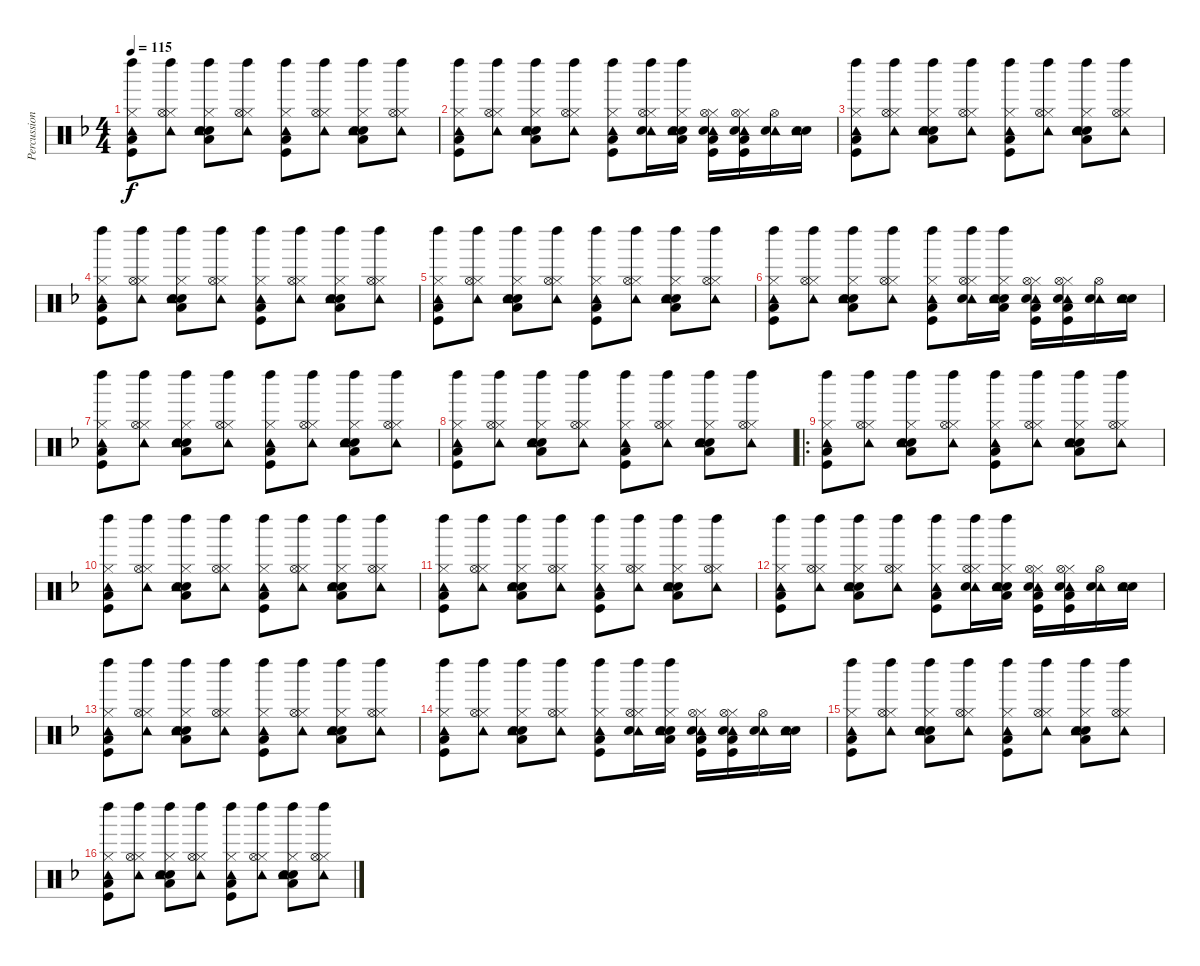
\track ("Percussion" "Percussion") {instrument percussion}
\staff {score}
\articulation defaults
\ts (4 4)
\tempo 115
\clef neutral
\ks dminor
("Left Maraca (hit)" "Hi-Hat (closed)" "Tambourine (hit)" "Kick (hit)" "Low Floor Tom (hit)").8{dy f} ("Left Maraca (hit)" "Hi-Hat (closed)" "Hi-Hat (open)" "Tambourine (hit)").8 ("Left Maraca (hit)" "Hi-Hat (closed)" "Electric Snare (hit)" "Tambourine (hit)" "Snare (hit) 2" "Low Tom (hit)").8 ("Left Maraca (hit)" "Hi-Hat (closed)" "Hi-Hat (open)" "Tambourine (hit)").8 ("Left Maraca (hit)" "Hi-Hat (closed)" "Tambourine (hit)" "Kick (hit)" "Low Floor Tom (hit)").8 ("Left Maraca (hit)" "Hi-Hat (closed)" "Hi-Hat (open)" "Tambourine (hit)").8 ("Left Maraca (hit)" "Hi-Hat (closed)" "Electric Snare (hit)" "Tambourine (hit)" "Snare (hit) 2" "Low Tom (hit)").8 ("Left Maraca (hit)" "Hi-Hat (closed)" "Hi-Hat (open)" "Tambourine (hit)").8 |
("Left Maraca (hit)" "Hi-Hat (closed)" "Tambourine (hit)" "Kick (hit)" "Low Floor Tom (hit)").8 ("Left Maraca (hit)" "Hi-Hat (closed)" "Hi-Hat (open)" "Tambourine (hit)").8 ("Left Maraca (hit)" "Hi-Hat (closed)" "Electric Snare (hit)" "Tambourine (hit)" "Snare (hit) 2" "Low Tom (hit)").8 ("Left Maraca (hit)" "Hi-Hat (closed)" "Hi-Hat (open)" "Tambourine (hit)").8 ("Left Maraca (hit)" "Hi-Hat (closed)" "Tambourine (hit)" "Kick (hit)" "Low Floor Tom (hit)").8 ("Left Maraca (hit)" "Hi-Hat (closed)" "Hi-Hat (open)" "Tambourine (hit)" "Snare (hit) 2").16 ("Left Maraca (hit)" "Hi-Hat (closed)" "Electric Snare (hit)" "Tambourine (hit)" "Snare (hit) 2" "Low Tom (hit)").16 ("Kick (hit)" "Hi-Hat (closed)" "Hi-Hat (open)" "Tambourine (hit)" "Electric Snare (hit)" "Low Floor Tom (hit)").16 ("Kick (hit)" "Hi-Hat (closed)" "Hi-Hat (open)" "Tambourine (hit)" "Electric Snare (hit)" "Low Floor Tom (hit)").16 ("Hi-Hat (open)" "Tambourine (hit)" "Snare (hit) 2").16 ("Electric Snare (hit)" "Tambourine (hit)" "Snare (hit) 2").16 |
("Left Maraca (hit)" "Hi-Hat (closed)" "Tambourine (hit)" "Kick (hit)" "Low Floor Tom (hit)").8 ("Left Maraca (hit)" "Hi-Hat (closed)" "Hi-Hat (open)" "Tambourine (hit)").8 ("Left Maraca (hit)" "Hi-Hat (closed)" "Electric Snare (hit)" "Tambourine (hit)" "Snare (hit) 2" "Low Tom (hit)").8 ("Left Maraca (hit)" "Hi-Hat (closed)" "Hi-Hat (open)" "Tambourine (hit)").8 ("Left Maraca (hit)" "Hi-Hat (closed)" "Tambourine (hit)" "Kick (hit)" "Low Floor Tom (hit)").8 ("Left Maraca (hit)" "Hi-Hat (closed)" "Hi-Hat (open)" "Tambourine (hit)").8 ("Left Maraca (hit)" "Hi-Hat (closed)" "Electric Snare (hit)" "Tambourine (hit)" "Snare (hit) 2" "Low Tom (hit)").8 ("Left Maraca (hit)" "Hi-Hat (closed)" "Hi-Hat (open)" "Tambourine (hit)").8 |
("Left Maraca (hit)" "Hi-Hat (closed)" "Tambourine (hit)" "Kick (hit)" "Low Floor Tom (hit)").8 ("Left Maraca (hit)" "Hi-Hat (closed)" "Hi-Hat (open)" "Tambourine (hit)").8 ("Left Maraca (hit)" "Hi-Hat (closed)" "Electric Snare (hit)" "Tambourine (hit)" "Snare (hit) 2" "Low Tom (hit)").8 ("Left Maraca (hit)" "Hi-Hat (closed)" "Hi-Hat (open)" "Tambourine (hit)").8 ("Left Maraca (hit)" "Hi-Hat (closed)" "Tambourine (hit)" "Kick (hit)" "Low Floor Tom (hit)").8 ("Left Maraca (hit)" "Hi-Hat (closed)" "Hi-Hat (open)" "Tambourine (hit)").8 ("Left Maraca (hit)" "Hi-Hat (closed)" "Electric Snare (hit)" "Tambourine (hit)" "Snare (hit) 2" "Low Tom (hit)").8 ("Left Maraca (hit)" "Hi-Hat (closed)" "Hi-Hat (open)" "Tambourine (hit)").8 |
("Left Maraca (hit)" "Hi-Hat (closed)" "Tambourine (hit)" "Kick (hit)" "Low Floor Tom (hit)").8 ("Left Maraca (hit)" "Hi-Hat (closed)" "Hi-Hat (open)" "Tambourine (hit)").8 ("Left Maraca (hit)" "Hi-Hat (closed)" "Electric Snare (hit)" "Tambourine (hit)" "Snare (hit) 2" "Low Tom (hit)").8 ("Left Maraca (hit)" "Hi-Hat (closed)" "Hi-Hat (open)" "Tambourine (hit)").8 ("Left Maraca (hit)" "Hi-Hat (closed)" "Tambourine (hit)" "Kick (hit)" "Low Floor Tom (hit)").8 ("Left Maraca (hit)" "Hi-Hat (closed)" "Hi-Hat (open)" "Tambourine (hit)").8 ("Left Maraca (hit)" "Hi-Hat (closed)" "Electric Snare (hit)" "Tambourine (hit)" "Snare (hit) 2" "Low Tom (hit)").8 ("Left Maraca (hit)" "Hi-Hat (closed)" "Hi-Hat (open)" "Tambourine (hit)").8 |
("Left Maraca (hit)" "Hi-Hat (closed)" "Tambourine (hit)" "Kick (hit)" "Low Floor Tom (hit)").8 ("Left Maraca (hit)" "Hi-Hat (closed)" "Hi-Hat (open)" "Tambourine (hit)").8 ("Left Maraca (hit)" "Hi-Hat (closed)" "Electric Snare (hit)" "Tambourine (hit)" "Snare (hit) 2" "Low Tom (hit)").8 ("Left Maraca (hit)" "Hi-Hat (closed)" "Hi-Hat (open)" "Tambourine (hit)").8 ("Left Maraca (hit)" "Hi-Hat (closed)" "Tambourine (hit)" "Kick (hit)" "Low Floor Tom (hit)").8 ("Left Maraca (hit)" "Hi-Hat (closed)" "Hi-Hat (open)" "Tambourine (hit)" "Snare (hit) 2").16 ("Left Maraca (hit)" "Hi-Hat (closed)" "Electric Snare (hit)" "Tambourine (hit)" "Snare (hit) 2" "Low Tom (hit)").16 ("Kick (hit)" "Hi-Hat (closed)" "Hi-Hat (open)" "Tambourine (hit)" "Electric Snare (hit)" "Low Floor Tom (hit)").16 ("Kick (hit)" "Hi-Hat (closed)" "Hi-Hat (open)" "Tambourine (hit)" "Electric Snare (hit)" "Low Floor Tom (hit)").16 ("Hi-Hat (open)" "Tambourine (hit)" "Snare (hit) 2").16 ("Electric Snare (hit)" "Tambourine (hit)" "Snare (hit) 2").16 |
("Left Maraca (hit)" "Hi-Hat (closed)" "Tambourine (hit)" "Kick (hit)" "Low Floor Tom (hit)").8 ("Left Maraca (hit)" "Hi-Hat (closed)" "Hi-Hat (open)" "Tambourine (hit)").8 ("Left Maraca (hit)" "Hi-Hat (closed)" "Electric Snare (hit)" "Tambourine (hit)" "Snare (hit) 2" "Low Tom (hit)").8 ("Left Maraca (hit)" "Hi-Hat (closed)" "Hi-Hat (open)" "Tambourine (hit)").8 ("Left Maraca (hit)" "Hi-Hat (closed)" "Tambourine (hit)" "Kick (hit)" "Low Floor Tom (hit)").8 ("Left Maraca (hit)" "Hi-Hat (closed)" "Hi-Hat (open)" "Tambourine (hit)").8 ("Left Maraca (hit)" "Hi-Hat (closed)" "Electric Snare (hit)" "Tambourine (hit)" "Snare (hit) 2" "Low Tom (hit)").8 ("Left Maraca (hit)" "Hi-Hat (closed)" "Hi-Hat (open)" "Tambourine (hit)").8 |
("Left Maraca (hit)" "Hi-Hat (closed)" "Tambourine (hit)" "Kick (hit)" "Low Floor Tom (hit)").8 ("Left Maraca (hit)" "Hi-Hat (closed)" "Hi-Hat (open)" "Tambourine (hit)").8 ("Left Maraca (hit)" "Hi-Hat (closed)" "Electric Snare (hit)" "Tambourine (hit)" "Snare (hit) 2" "Low Tom (hit)").8 ("Left Maraca (hit)" "Hi-Hat (closed)" "Hi-Hat (open)" "Tambourine (hit)").8 ("Left Maraca (hit)" "Hi-Hat (closed)" "Tambourine (hit)" "Kick (hit)" "Low Floor Tom (hit)").8 ("Left Maraca (hit)" "Hi-Hat (closed)" "Hi-Hat (open)" "Tambourine (hit)").8 ("Left Maraca (hit)" "Hi-Hat (closed)" "Electric Snare (hit)" "Tambourine (hit)" "Snare (hit) 2" "Low Tom (hit)").8 ("Left Maraca (hit)" "Hi-Hat (closed)" "Hi-Hat (open)" "Tambourine (hit)").8 |
\ro
("Left Maraca (hit)" "Hi-Hat (closed)" "Tambourine (hit)" "Kick (hit)" "Low Floor Tom (hit)").8 ("Left Maraca (hit)" "Hi-Hat (closed)" "Hi-Hat (open)" "Tambourine (hit)").8 ("Left Maraca (hit)" "Hi-Hat (closed)" "Electric Snare (hit)" "Tambourine (hit)" "Snare (hit) 2" "Low Tom (hit)").8 ("Left Maraca (hit)" "Hi-Hat (closed)" "Hi-Hat (open)" "Tambourine (hit)").8 ("Left Maraca (hit)" "Hi-Hat (closed)" "Tambourine (hit)" "Kick (hit)" "Low Floor Tom (hit)").8 ("Left Maraca (hit)" "Hi-Hat (closed)" "Hi-Hat (open)" "Tambourine (hit)").8 ("Left Maraca (hit)" "Hi-Hat (closed)" "Electric Snare (hit)" "Tambourine (hit)" "Snare (hit) 2" "Low Tom (hit)").8 ("Left Maraca (hit)" "Hi-Hat (closed)" "Hi-Hat (open)" "Tambourine (hit)").8 |
("Left Maraca (hit)" "Hi-Hat (closed)" "Tambourine (hit)" "Kick (hit)" "Low Floor Tom (hit)").8 ("Left Maraca (hit)" "Hi-Hat (closed)" "Hi-Hat (open)" "Tambourine (hit)").8 ("Left Maraca (hit)" "Hi-Hat (closed)" "Electric Snare (hit)" "Tambourine (hit)" "Snare (hit) 2" "Low Tom (hit)").8 ("Left Maraca (hit)" "Hi-Hat (closed)" "Hi-Hat (open)" "Tambourine (hit)").8 ("Left Maraca (hit)" "Hi-Hat (closed)" "Tambourine (hit)" "Kick (hit)" "Low Floor Tom (hit)").8 ("Left Maraca (hit)" "Hi-Hat (closed)" "Hi-Hat (open)" "Tambourine (hit)").8 ("Left Maraca (hit)" "Hi-Hat (closed)" "Electric Snare (hit)" "Tambourine (hit)" "Snare (hit) 2" "Low Tom (hit)").8 ("Left Maraca (hit)" "Hi-Hat (closed)" "Hi-Hat (open)" "Tambourine (hit)").8 |
("Left Maraca (hit)" "Hi-Hat (closed)" "Tambourine (hit)" "Kick (hit)" "Low Floor Tom (hit)").8 ("Left Maraca (hit)" "Hi-Hat (closed)" "Hi-Hat (open)" "Tambourine (hit)").8 ("Left Maraca (hit)" "Hi-Hat (closed)" "Electric Snare (hit)" "Tambourine (hit)" "Snare (hit) 2" "Low Tom (hit)").8 ("Left Maraca (hit)" "Hi-Hat (closed)" "Hi-Hat (open)" "Tambourine (hit)").8 ("Left Maraca (hit)" "Hi-Hat (closed)" "Tambourine (hit)" "Kick (hit)" "Low Floor Tom (hit)").8 ("Left Maraca (hit)" "Hi-Hat (closed)" "Hi-Hat (open)" "Tambourine (hit)").8 ("Left Maraca (hit)" "Hi-Hat (closed)" "Electric Snare (hit)" "Tambourine (hit)" "Snare (hit) 2" "Low Tom (hit)").8 ("Left Maraca (hit)" "Hi-Hat (closed)" "Hi-Hat (open)" "Tambourine (hit)").8 |
("Left Maraca (hit)" "Hi-Hat (closed)" "Tambourine (hit)" "Kick (hit)" "Low Floor Tom (hit)").8 ("Left Maraca (hit)" "Hi-Hat (closed)" "Hi-Hat (open)" "Tambourine (hit)").8 ("Left Maraca (hit)" "Hi-Hat (closed)" "Electric Snare (hit)" "Tambourine (hit)" "Snare (hit) 2" "Low Tom (hit)").8 ("Left Maraca (hit)" "Hi-Hat (closed)" "Hi-Hat (open)" "Tambourine (hit)").8 ("Left Maraca (hit)" "Hi-Hat (closed)" "Tambourine (hit)" "Kick (hit)" "Low Floor Tom (hit)").8 ("Left Maraca (hit)" "Hi-Hat (closed)" "Hi-Hat (open)" "Tambourine (hit)" "Snare (hit) 2").16 ("Left Maraca (hit)" "Hi-Hat (closed)" "Electric Snare (hit)" "Tambourine (hit)" "Snare (hit) 2" "Low Tom (hit)").16 ("Kick (hit)" "Hi-Hat (closed)" "Hi-Hat (open)" "Tambourine (hit)" "Electric Snare (hit)" "Low Floor Tom (hit)").16 ("Kick (hit)" "Hi-Hat (closed)" "Hi-Hat (open)" "Tambourine (hit)" "Electric Snare (hit)" "Low Floor Tom (hit)").16 ("Hi-Hat (open)" "Tambourine (hit)" "Snare (hit) 2").16 ("Electric Snare (hit)" "Tambourine (hit)" "Snare (hit) 2").16 |
("Left Maraca (hit)" "Hi-Hat (closed)" "Tambourine (hit)" "Kick (hit)" "Low Floor Tom (hit)").8 ("Left Maraca (hit)" "Hi-Hat (closed)" "Hi-Hat (open)" "Tambourine (hit)").8 ("Left Maraca (hit)" "Hi-Hat (closed)" "Electric Snare (hit)" "Tambourine (hit)" "Snare (hit) 2" "Low Tom (hit)").8 ("Left Maraca (hit)" "Hi-Hat (closed)" "Hi-Hat (open)" "Tambourine (hit)").8 ("Left Maraca (hit)" "Hi-Hat (closed)" "Tambourine (hit)" "Kick (hit)" "Low Floor Tom (hit)").8 ("Left Maraca (hit)" "Hi-Hat (closed)" "Hi-Hat (open)" "Tambourine (hit)").8 ("Left Maraca (hit)" "Hi-Hat (closed)" "Electric Snare (hit)" "Tambourine (hit)" "Snare (hit) 2" "Low Tom (hit)").8 ("Left Maraca (hit)" "Hi-Hat (closed)" "Hi-Hat (open)" "Tambourine (hit)").8 |
("Left Maraca (hit)" "Hi-Hat (closed)" "Tambourine (hit)" "Kick (hit)" "Low Floor Tom (hit)").8 ("Left Maraca (hit)" "Hi-Hat (closed)" "Hi-Hat (open)" "Tambourine (hit)").8 ("Left Maraca (hit)" "Hi-Hat (closed)" "Electric Snare (hit)" "Tambourine (hit)" "Snare (hit) 2" "Low Tom (hit)").8 ("Left Maraca (hit)" "Hi-Hat (closed)" "Hi-Hat (open)" "Tambourine (hit)").8 ("Left Maraca (hit)" "Hi-Hat (closed)" "Tambourine (hit)" "Kick (hit)" "Low Floor Tom (hit)").8 ("Left Maraca (hit)" "Hi-Hat (closed)" "Hi-Hat (open)" "Tambourine (hit)" "Snare (hit) 2").16 ("Left Maraca (hit)" "Hi-Hat (closed)" "Electric Snare (hit)" "Tambourine (hit)" "Snare (hit) 2" "Low Tom (hit)").16 ("Kick (hit)" "Hi-Hat (closed)" "Hi-Hat (open)" "Tambourine (hit)" "Electric Snare (hit)" "Low Floor Tom (hit)").16 ("Kick (hit)" "Hi-Hat (closed)" "Hi-Hat (open)" "Tambourine (hit)" "Electric Snare (hit)" "Low Floor Tom (hit)").16 ("Hi-Hat (open)" "Tambourine (hit)" "Snare (hit) 2").16 ("Electric Snare (hit)" "Tambourine (hit)" "Snare (hit) 2").16 |
("Left Maraca (hit)" "Hi-Hat (closed)" "Tambourine (hit)" "Kick (hit)" "Low Floor Tom (hit)").8 ("Left Maraca (hit)" "Hi-Hat (closed)" "Hi-Hat (open)" "Tambourine (hit)").8 ("Left Maraca (hit)" "Hi-Hat (closed)" "Electric Snare (hit)" "Tambourine (hit)" "Snare (hit) 2" "Low Tom (hit)").8 ("Left Maraca (hit)" "Hi-Hat (closed)" "Hi-Hat (open)" "Tambourine (hit)").8 ("Left Maraca (hit)" "Hi-Hat (closed)" "Tambourine (hit)" "Kick (hit)" "Low Floor Tom (hit)").8 ("Left Maraca (hit)" "Hi-Hat (closed)" "Hi-Hat (open)" "Tambourine (hit)").8 ("Left Maraca (hit)" "Hi-Hat (closed)" "Electric Snare (hit)" "Tambourine (hit)" "Snare (hit) 2" "Low Tom (hit)").8 ("Left Maraca (hit)" "Hi-Hat (closed)" "Hi-Hat (open)" "Tambourine (hit)").8 |
("Left Maraca (hit)" "Hi-Hat (closed)" "Tambourine (hit)" "Kick (hit)" "Low Floor Tom (hit)").8 ("Left Maraca (hit)" "Hi-Hat (closed)" "Hi-Hat (open)" "Tambourine (hit)").8 ("Left Maraca (hit)" "Hi-Hat (closed)" "Electric Snare (hit)" "Tambourine (hit)" "Snare (hit) 2" "Low Tom (hit)").8 ("Left Maraca (hit)" "Hi-Hat (closed)" "Hi-Hat (open)" "Tambourine (hit)").8 ("Left Maraca (hit)" "Hi-Hat (closed)" "Tambourine (hit)" "Kick (hit)" "Low Floor Tom (hit)").8 ("Left Maraca (hit)" "Hi-Hat (closed)" "Hi-Hat (open)" "Tambourine (hit)").8 ("Left Maraca (hit)" "Hi-Hat (closed)" "Electric Snare (hit)" "Tambourine (hit)" "Snare (hit) 2" "Low Tom (hit)").8 ("Left Maraca (hit)" "Hi-Hat (closed)" "Hi-Hat (open)" "Tambourine (hit)").8
